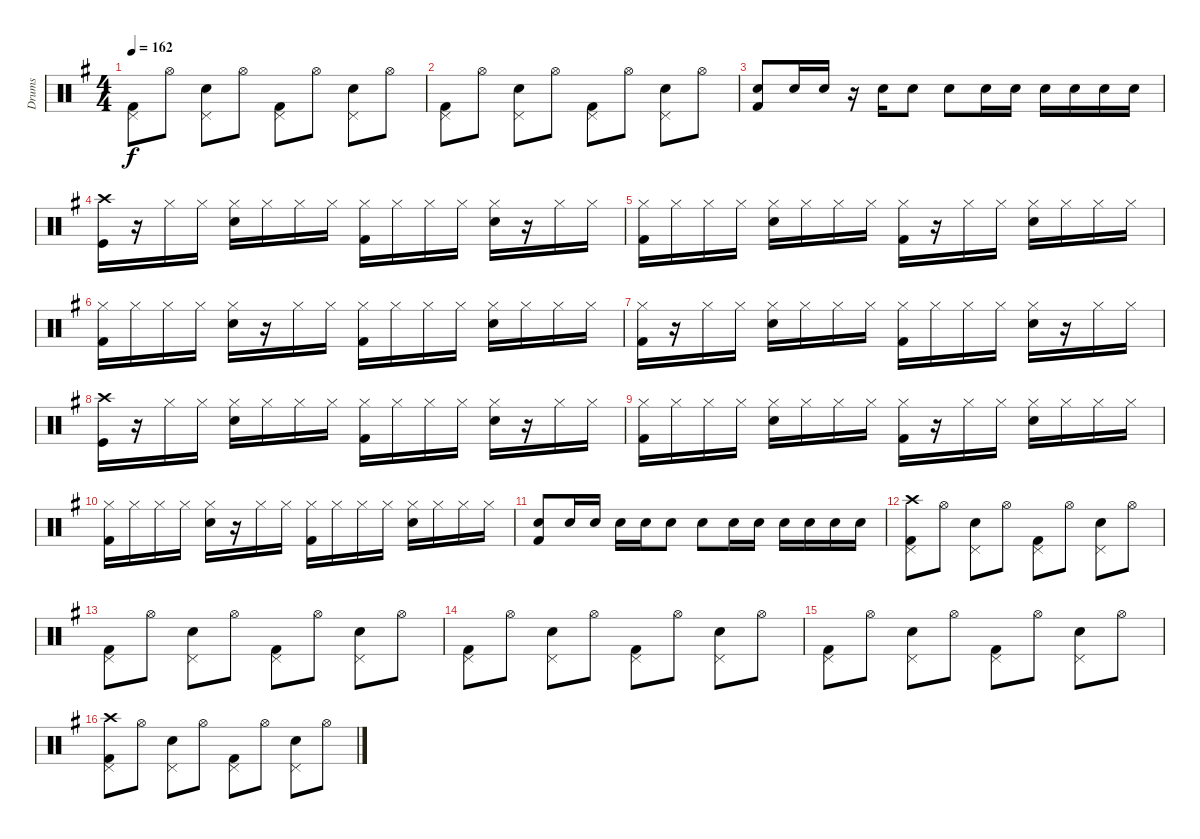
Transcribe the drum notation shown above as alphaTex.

\track ("Drums" "Drums") {instrument percussion}
\staff {score}
\articulation defaults
\ts (4 4)
\tempo 162
\clef neutral
\ks g
("Pedal Hi-Hat (hit)" "Kick (hit) 2").8{dy f} "Hi-Hat (open)".8 ("Electric Snare (hit)" "Pedal Hi-Hat (hit)").8 "Hi-Hat (open)".8 ("Pedal Hi-Hat (hit)" "Kick (hit) 2").8 "Hi-Hat (open)".8 ("Electric Snare (hit)" "Pedal Hi-Hat (hit)").8 "Hi-Hat (open)".8 |
("Pedal Hi-Hat (hit)" "Kick (hit) 2").8 "Hi-Hat (open)".8 ("Electric Snare (hit)" "Pedal Hi-Hat (hit)").8 "Hi-Hat (open)".8 ("Pedal Hi-Hat (hit)" "Kick (hit) 2").8 "Hi-Hat (open)".8 ("Electric Snare (hit)" "Pedal Hi-Hat (hit)").8 "Hi-Hat (open)".8 |
("Kick (hit) 2" "Electric Snare (hit)").8 "Electric Snare (hit)".16 "Electric Snare (hit)".16 r.16 "Electric Snare (hit)".16 "Electric Snare (hit)".8 "Electric Snare (hit)".8 "Electric Snare (hit)".16 "Electric Snare (hit)".16 "Electric Snare (hit)".16 "Electric Snare (hit)".16 "Electric Snare (hit)".16 "Electric Snare (hit)".16 |
("Kick (hit)" "Crash high (hit)").16 r.16 "Hi-Hat (closed)".16 "Hi-Hat (closed)".16 ("Electric Snare (hit)" "Hi-Hat (closed)").16 "Hi-Hat (closed)".16 "Hi-Hat (closed)".16 "Hi-Hat (closed)".16 ("Kick (hit) 2" "Hi-Hat (closed)").16 "Hi-Hat (closed)".16 "Hi-Hat (closed)".16 "Hi-Hat (closed)".16 ("Electric Snare (hit)" "Hi-Hat (closed)").16 r.16 "Hi-Hat (closed)".16 "Hi-Hat (closed)".16 |
("Kick (hit) 2" "Hi-Hat (closed)").16 "Hi-Hat (closed)".16 "Hi-Hat (closed)".16 "Hi-Hat (closed)".16 ("Electric Snare (hit)" "Hi-Hat (closed)").16 "Hi-Hat (closed)".16 "Hi-Hat (closed)".16 "Hi-Hat (closed)".16 ("Kick (hit) 2" "Hi-Hat (closed)").16 r.16 "Hi-Hat (closed)".16 "Hi-Hat (closed)".16 ("Electric Snare (hit)" "Hi-Hat (closed)").16 "Hi-Hat (closed)".16 "Hi-Hat (closed)".16 "Hi-Hat (closed)".16 |
("Kick (hit) 2" "Hi-Hat (closed)").16 "Hi-Hat (closed)".16 "Hi-Hat (closed)".16 "Hi-Hat (closed)".16 ("Electric Snare (hit)" "Hi-Hat (closed)").16 r.16 "Hi-Hat (closed)".16 "Hi-Hat (closed)".16 ("Kick (hit) 2" "Hi-Hat (closed)").16 "Hi-Hat (closed)".16 "Hi-Hat (closed)".16 "Hi-Hat (closed)".16 ("Electric Snare (hit)" "Hi-Hat (closed)").16 "Hi-Hat (closed)".16 "Hi-Hat (closed)".16 "Hi-Hat (closed)".16 |
("Kick (hit) 2" "Hi-Hat (closed)").16 r.16 "Hi-Hat (closed)".16 "Hi-Hat (closed)".16 ("Electric Snare (hit)" "Hi-Hat (closed)").16 "Hi-Hat (closed)".16 "Hi-Hat (closed)".16 "Hi-Hat (closed)".16 ("Kick (hit) 2" "Hi-Hat (closed)").16 "Hi-Hat (closed)".16 "Hi-Hat (closed)".16 "Hi-Hat (closed)".16 ("Electric Snare (hit)" "Hi-Hat (closed)").16 r.16 "Hi-Hat (closed)".16 "Hi-Hat (closed)".16 |
("Kick (hit)" "Crash high (hit)").16 r.16 "Hi-Hat (closed)".16 "Hi-Hat (closed)".16 ("Electric Snare (hit)" "Hi-Hat (closed)").16 "Hi-Hat (closed)".16 "Hi-Hat (closed)".16 "Hi-Hat (closed)".16 ("Kick (hit) 2" "Hi-Hat (closed)").16 "Hi-Hat (closed)".16 "Hi-Hat (closed)".16 "Hi-Hat (closed)".16 ("Electric Snare (hit)" "Hi-Hat (closed)").16 r.16 "Hi-Hat (closed)".16 "Hi-Hat (closed)".16 |
("Kick (hit) 2" "Hi-Hat (closed)").16 "Hi-Hat (closed)".16 "Hi-Hat (closed)".16 "Hi-Hat (closed)".16 ("Electric Snare (hit)" "Hi-Hat (closed)").16 "Hi-Hat (closed)".16 "Hi-Hat (closed)".16 "Hi-Hat (closed)".16 ("Kick (hit) 2" "Hi-Hat (closed)").16 r.16 "Hi-Hat (closed)".16 "Hi-Hat (closed)".16 ("Electric Snare (hit)" "Hi-Hat (closed)").16 "Hi-Hat (closed)".16 "Hi-Hat (closed)".16 "Hi-Hat (closed)".16 |
("Kick (hit) 2" "Hi-Hat (closed)").16 "Hi-Hat (closed)".16 "Hi-Hat (closed)".16 "Hi-Hat (closed)".16 ("Electric Snare (hit)" "Hi-Hat (closed)").16 r.16 "Hi-Hat (closed)".16 "Hi-Hat (closed)".16 ("Kick (hit) 2" "Hi-Hat (closed)").16 "Hi-Hat (closed)".16 "Hi-Hat (closed)".16 "Hi-Hat (closed)".16 ("Electric Snare (hit)" "Hi-Hat (closed)").16 "Hi-Hat (closed)".16 "Hi-Hat (closed)".16 "Hi-Hat (closed)".16 |
("Kick (hit) 2" "Electric Snare (hit)").8 "Electric Snare (hit)".16 "Electric Snare (hit)".16 "Electric Snare (hit)".16 "Electric Snare (hit)".16 "Electric Snare (hit)".8 "Electric Snare (hit)".8 "Electric Snare (hit)".16 "Electric Snare (hit)".16 "Electric Snare (hit)".16 "Electric Snare (hit)".16 "Electric Snare (hit)".16 "Electric Snare (hit)".16 |
("Crash high (hit)" "Pedal Hi-Hat (hit)" "Kick (hit) 2").8 "Hi-Hat (open)".8 ("Electric Snare (hit)" "Pedal Hi-Hat (hit)").8 "Hi-Hat (open)".8 ("Pedal Hi-Hat (hit)" "Kick (hit) 2").8 "Hi-Hat (open)".8 ("Electric Snare (hit)" "Pedal Hi-Hat (hit)").8 "Hi-Hat (open)".8 |
("Pedal Hi-Hat (hit)" "Kick (hit) 2").8 "Hi-Hat (open)".8 ("Electric Snare (hit)" "Pedal Hi-Hat (hit)").8 "Hi-Hat (open)".8 ("Pedal Hi-Hat (hit)" "Kick (hit) 2").8 "Hi-Hat (open)".8 ("Electric Snare (hit)" "Pedal Hi-Hat (hit)").8 "Hi-Hat (open)".8 |
("Pedal Hi-Hat (hit)" "Kick (hit) 2").8 "Hi-Hat (open)".8 ("Electric Snare (hit)" "Pedal Hi-Hat (hit)").8 "Hi-Hat (open)".8 ("Pedal Hi-Hat (hit)" "Kick (hit) 2").8 "Hi-Hat (open)".8 ("Electric Snare (hit)" "Pedal Hi-Hat (hit)").8 "Hi-Hat (open)".8 |
("Pedal Hi-Hat (hit)" "Kick (hit) 2").8 "Hi-Hat (open)".8 ("Electric Snare (hit)" "Pedal Hi-Hat (hit)").8 "Hi-Hat (open)".8 ("Pedal Hi-Hat (hit)" "Kick (hit) 2").8 "Hi-Hat (open)".8 ("Electric Snare (hit)" "Pedal Hi-Hat (hit)").8 "Hi-Hat (open)".8 |
("Crash high (hit)" "Pedal Hi-Hat (hit)" "Kick (hit) 2").8 "Hi-Hat (open)".8 ("Electric Snare (hit)" "Pedal Hi-Hat (hit)").8 "Hi-Hat (open)".8 ("Pedal Hi-Hat (hit)" "Kick (hit) 2").8 "Hi-Hat (open)".8 ("Electric Snare (hit)" "Pedal Hi-Hat (hit)").8 "Hi-Hat (open)".8
